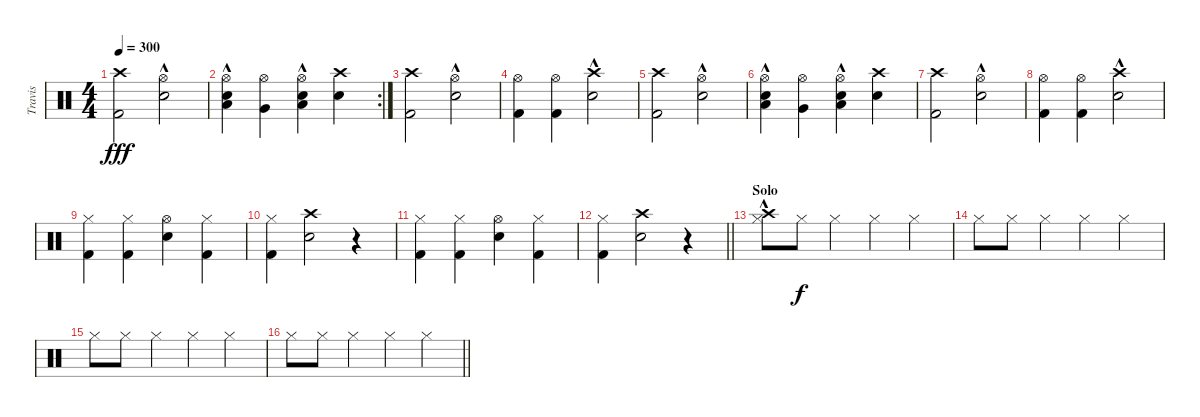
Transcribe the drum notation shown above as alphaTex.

\track ("Travis" "Travis") {instrument percussion}
\staff {score}
\articulation defaults
\ts (4 4)
\tempo 300
\clef neutral
\ks c
("Crash high (hit)" "Kick (hit) 2").2{dy fff} ("Hi-Hat (open)" "Electric Snare (hit)"{hac}).2 |
\rc 2
("Hi-Hat (open)" "Low Tom (hit)" "Electric Snare (hit)"{hac}).4 ("Hi-Hat (open)" "Very Low Tom (hit)").4 ("Hi-Hat (open)" "Low Floor Tom (hit)" "Electric Snare (hit)"{hac}).4 ("Crash high (hit)" "Electric Snare (hit)").4 |
("Crash high (hit)" "Kick (hit) 2").2 ("Hi-Hat (open)" "Electric Snare (hit)"{hac}).2 |
("Hi-Hat (open)" "Kick (hit) 2").4 ("Hi-Hat (open)" "Kick (hit) 2").4 ("Crash high (hit)" "Electric Snare (hit)"{hac}).2 |
("Crash high (hit)" "Kick (hit) 2").2 ("Hi-Hat (open)" "Electric Snare (hit)"{hac}).2 |
("Hi-Hat (open)" "Low Tom (hit)" "Electric Snare (hit)"{hac}).4 ("Hi-Hat (open)" "Very Low Tom (hit)").4 ("Hi-Hat (open)" "Low Floor Tom (hit)" "Electric Snare (hit)"{hac}).4 ("Crash high (hit)" "Electric Snare (hit)").4 |
("Crash high (hit)" "Kick (hit) 2").2 ("Hi-Hat (open)" "Electric Snare (hit)"{hac}).2 |
("Hi-Hat (open)" "Kick (hit) 2").4 ("Hi-Hat (open)" "Kick (hit) 2").4 ("Crash high (hit)" "Electric Snare (hit)"{hac}).2 |
("Hi-Hat (closed)" "Kick (hit) 2").4 ("Hi-Hat (closed)" "Kick (hit) 2").4 ("Hi-Hat (open)" "Electric Snare (hit)").4 ("Hi-Hat (closed)" "Kick (hit) 2").4 |
("Hi-Hat (closed)" "Kick (hit) 2").4 ("Crash high (hit)" "Electric Snare (hit)").2 r.4 |
("Hi-Hat (closed)" "Kick (hit) 2").4 ("Hi-Hat (closed)" "Kick (hit) 2").4 ("Hi-Hat (open)" "Electric Snare (hit)").4 ("Hi-Hat (closed)" "Kick (hit) 2").4 |
\barLineRight lightlight
("Hi-Hat (closed)" "Kick (hit) 2").4 ("Crash high (hit)" "Electric Snare (hit)").2 r.4 |
\section ("" "Solo")
("Hi-Hat (closed)" "Crash high (hit)"{hac}).8 "Hi-Hat (closed)".8{dy f} "Hi-Hat (closed)".4 "Hi-Hat (closed)".4 "Hi-Hat (closed)".4 |
"Hi-Hat (closed)".8 "Hi-Hat (closed)".8 "Hi-Hat (closed)".4 "Hi-Hat (closed)".4 "Hi-Hat (closed)".4 |
"Hi-Hat (closed)".8 "Hi-Hat (closed)".8 "Hi-Hat (closed)".4 "Hi-Hat (closed)".4 "Hi-Hat (closed)".4 |
\barLineRight lightlight "Hi-Hat (closed)".8 "Hi-Hat (closed)".8 "Hi-Hat (closed)".4 "Hi-Hat (closed)".4 "Hi-Hat (closed)".4
